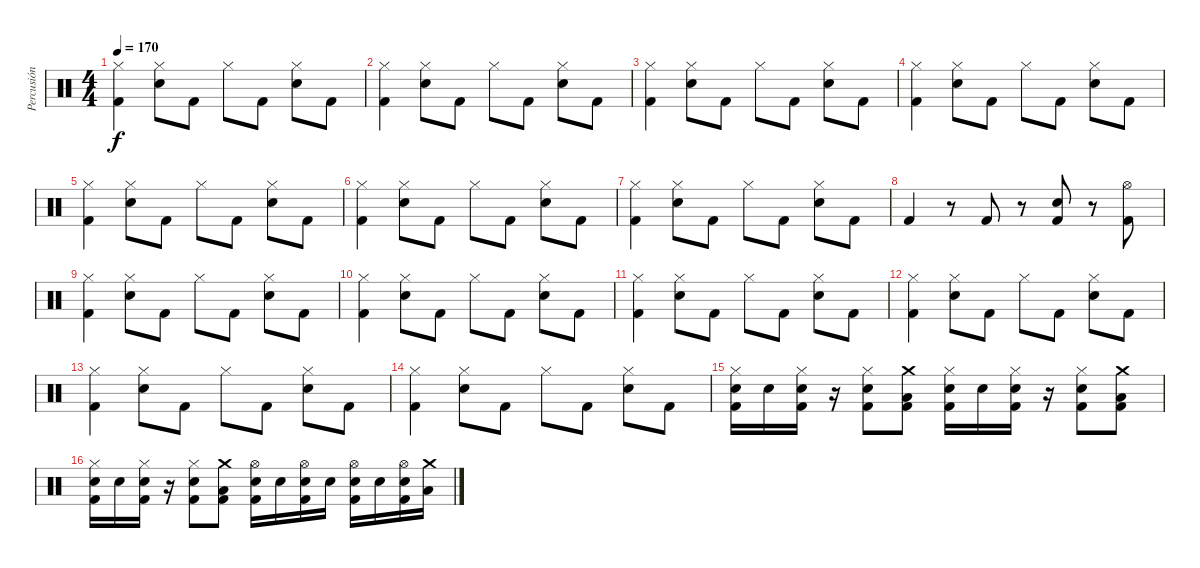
\track ("Percusión" "Percusión") {instrument percussion}
\staff {score}
\articulation defaults
\ts (4 4)
\tempo 170
\clef neutral
\ks c
("Hi-Hat (closed)" "Kick (hit) 2").4{dy f} ("Hi-Hat (closed)" "Snare (hit) 2").8 "Kick (hit) 2".8 "Hi-Hat (closed)".8 "Kick (hit) 2".8 ("Hi-Hat (closed)" "Snare (hit) 2").8 "Kick (hit) 2".8 |
("Hi-Hat (closed)" "Kick (hit) 2").4 ("Hi-Hat (closed)" "Snare (hit) 2").8 "Kick (hit) 2".8 "Hi-Hat (closed)".8 "Kick (hit) 2".8 ("Hi-Hat (closed)" "Snare (hit) 2").8 "Kick (hit) 2".8 |
("Hi-Hat (closed)" "Kick (hit) 2").4 ("Hi-Hat (closed)" "Snare (hit) 2").8 "Kick (hit) 2".8 "Hi-Hat (closed)".8 "Kick (hit) 2".8 ("Hi-Hat (closed)" "Snare (hit) 2").8 "Kick (hit) 2".8 |
("Hi-Hat (closed)" "Kick (hit) 2").4 ("Hi-Hat (closed)" "Snare (hit) 2").8 "Kick (hit) 2".8 "Hi-Hat (closed)".8 "Kick (hit) 2".8 ("Hi-Hat (closed)" "Snare (hit) 2").8 "Kick (hit) 2".8 |
("Hi-Hat (closed)" "Kick (hit) 2").4 ("Hi-Hat (closed)" "Snare (hit) 2").8 "Kick (hit) 2".8 "Hi-Hat (closed)".8 "Kick (hit) 2".8 ("Hi-Hat (closed)" "Snare (hit) 2").8 "Kick (hit) 2".8 |
("Hi-Hat (closed)" "Kick (hit) 2").4 ("Hi-Hat (closed)" "Snare (hit) 2").8 "Kick (hit) 2".8 "Hi-Hat (closed)".8 "Kick (hit) 2".8 ("Hi-Hat (closed)" "Snare (hit) 2").8 "Kick (hit) 2".8 |
("Hi-Hat (closed)" "Kick (hit) 2").4 ("Hi-Hat (closed)" "Snare (hit) 2").8 "Kick (hit) 2".8 "Hi-Hat (closed)".8 "Kick (hit) 2".8 ("Hi-Hat (closed)" "Snare (hit) 2").8 "Kick (hit) 2".8 |
"Kick (hit) 2".4 r.8 "Kick (hit) 2".8 r.8 ("Snare (hit) 2" "Kick (hit) 2").8 r.8 ("Hi-Hat (open)" "Kick (hit) 2").8 |
("Hi-Hat (closed)" "Kick (hit) 2").4 ("Hi-Hat (closed)" "Snare (hit) 2").8 "Kick (hit) 2".8 "Hi-Hat (closed)".8 "Kick (hit) 2".8 ("Hi-Hat (closed)" "Snare (hit) 2").8 "Kick (hit) 2".8 |
("Hi-Hat (closed)" "Kick (hit) 2").4 ("Hi-Hat (closed)" "Snare (hit) 2").8 "Kick (hit) 2".8 "Hi-Hat (closed)".8 "Kick (hit) 2".8 ("Hi-Hat (closed)" "Snare (hit) 2").8 "Kick (hit) 2".8 |
("Hi-Hat (closed)" "Kick (hit) 2").4 ("Hi-Hat (closed)" "Snare (hit) 2").8 "Kick (hit) 2".8 "Hi-Hat (closed)".8 "Kick (hit) 2".8 ("Hi-Hat (closed)" "Snare (hit) 2").8 "Kick (hit) 2".8 |
("Hi-Hat (closed)" "Kick (hit) 2").4 ("Hi-Hat (closed)" "Snare (hit) 2").8 "Kick (hit) 2".8 "Hi-Hat (closed)".8 "Kick (hit) 2".8 ("Hi-Hat (closed)" "Snare (hit) 2").8 "Kick (hit) 2".8 |
("Hi-Hat (closed)" "Kick (hit) 2").4 ("Hi-Hat (closed)" "Snare (hit) 2").8 "Kick (hit) 2".8 "Hi-Hat (closed)".8 "Kick (hit) 2".8 ("Hi-Hat (closed)" "Snare (hit) 2").8 "Kick (hit) 2".8 |
("Hi-Hat (closed)" "Kick (hit) 2").4 ("Hi-Hat (closed)" "Snare (hit) 2").8 "Kick (hit) 2".8 "Hi-Hat (closed)".8 "Kick (hit) 2".8 ("Hi-Hat (closed)" "Snare (hit) 2").8 "Kick (hit) 2".8 |
("Hi-Hat (closed)" "Snare (hit) 2" "Kick (hit) 2").16 "Snare (hit) 2".16 ("Hi-Hat (closed)" "Snare (hit) 2" "Kick (hit) 2").16 r.16 ("Hi-Hat (closed)" "Snare (hit) 2" "Kick (hit) 2").8 ("Crash medium (hit)" "Low Tom (hit)" "Kick (hit) 2").8 ("Hi-Hat (closed)" "Snare (hit) 2" "Kick (hit) 2").16 "Snare (hit) 2".16 ("Hi-Hat (closed)" "Snare (hit) 2" "Kick (hit) 2").16 r.16 ("Hi-Hat (closed)" "Snare (hit) 2" "Kick (hit) 2").8 ("Crash medium (hit)" "Low Tom (hit)" "Kick (hit) 2").8 |
("Hi-Hat (closed)" "Snare (hit) 2" "Kick (hit) 2").16 "Snare (hit) 2".16 ("Hi-Hat (closed)" "Snare (hit) 2" "Kick (hit) 2").16 r.16 ("Hi-Hat (closed)" "Snare (hit) 2" "Kick (hit) 2").8 ("Crash medium (hit)" "Low Tom (hit)" "Kick (hit) 2").8 ("Hi-Hat (open)" "Snare (hit) 2" "Kick (hit) 2").16 "Snare (hit) 2".16 ("Hi-Hat (open)" "Snare (hit) 2" "Kick (hit) 2").16 "Snare (hit) 2".16 ("Hi-Hat (open)" "Snare (hit) 2" "Kick (hit) 2").16 "Snare (hit) 2".16 ("Hi-Hat (open)" "Snare (hit) 2" "Kick (hit) 2").16 ("Crash medium (hit)" "Low Tom (hit)").16
